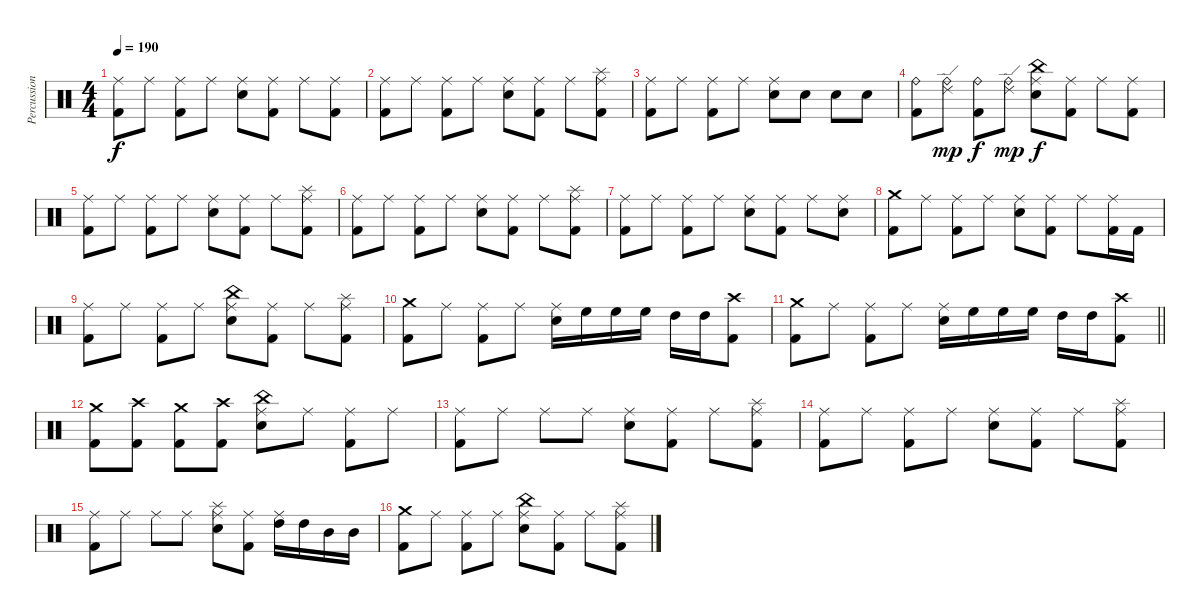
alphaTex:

\track ("Percussions" "Percussion") {instrument percussion}
\staff {score}
\articulation defaults
\ts (4 4)
\tempo 190
\clef neutral
\ks c
("Ride (middle)" "Kick (hit) 2").8{dy f} "Ride (middle)".8 ("Ride (middle)" "Kick (hit) 2").8 "Ride (middle)".8 ("Ride (middle)" "Electric Snare (hit)").8 ("Ride (middle)" "Kick (hit) 2").8 "Ride (middle)".8 ("Ride (middle)" "Kick (hit) 2").8 |
("Ride (middle)" "Kick (hit) 2").8 "Ride (middle)".8 ("Ride (middle)" "Kick (hit) 2").8 "Ride (middle)".8 ("Ride (middle)" "Electric Snare (hit)").8 ("Ride (middle)" "Kick (hit) 2").8 "Ride (middle)".8 ("Ride (middle)" "Splash (hit)" "Kick (hit) 2").8 |
("Ride (middle)" "Kick (hit) 2").8 "Ride (middle)".8 ("Ride (middle)" "Kick (hit) 2").8 "Ride (middle)".8 ("Ride (middle)" "Electric Snare (hit)").8 "Electric Snare (hit)".8 "Electric Snare (hit)".8 "Electric Snare (hit)".8 |
("Ride (bell)" "Kick (hit) 2").8 ("Ride (edge) 2" "Ride (bell)").8{dy mp} ("Ride (bell)" "Kick (hit) 2").8{dy f} ("Ride (edge) 2" "Ride (bell)").8{dy mp} ("Ride (middle)" "China (hit)" "Electric Snare (hit)").8{dy f} ("Ride (middle)" "Kick (hit) 2").8 "Ride (middle)".8 ("Ride (middle)" "Kick (hit) 2").8 |
("Ride (middle)" "Kick (hit) 2").8 "Ride (middle)".8 ("Ride (middle)" "Kick (hit) 2").8 "Ride (middle)".8 ("Ride (middle)" "Electric Snare (hit)").8 ("Ride (middle)" "Kick (hit) 2").8 "Ride (middle)".8 ("Ride (middle)" "Splash (hit)" "Kick (hit) 2").8 |
("Ride (middle)" "Kick (hit) 2").8 "Ride (middle)".8 ("Ride (middle)" "Kick (hit) 2").8 "Ride (middle)".8 ("Ride (middle)" "Electric Snare (hit)").8 ("Ride (middle)" "Kick (hit) 2").8 "Ride (middle)".8 ("Ride (middle)" "Splash (hit)" "Kick (hit) 2").8 |
("Ride (middle)" "Kick (hit) 2").8 "Ride (middle)".8 ("Ride (middle)" "Kick (hit) 2").8 "Ride (middle)".8 ("Ride (middle)" "Electric Snare (hit)").8 ("Ride (middle)" "Kick (hit) 2").8 "Ride (middle)".8 ("Ride (middle)" "Electric Snare (hit)").8 |
("Crash medium (hit)" "Kick (hit) 2").8 "Ride (middle)".8 ("Ride (middle)" "Kick (hit) 2").8 "Ride (middle)".8 ("Ride (middle)" "Electric Snare (hit)").8 ("Ride (middle)" "Kick (hit) 2").8 "Ride (middle)".8 ("Ride (middle)" "Kick (hit) 2").16 "Kick (hit) 2".16 |
("Ride (middle)" "Kick (hit) 2").8 "Ride (middle)".8 ("Ride (middle)" "Kick (hit) 2").8 "Ride (middle)".8 ("Ride (middle)" "China (hit)" "Electric Snare (hit)").8 ("Ride (middle)" "Kick (hit) 2").8 "Ride (middle)".8 ("Ride (middle)" "Splash (hit)" "Kick (hit) 2").8 |
("Crash medium (hit)" "Kick (hit) 2").8 "Ride (middle)".8 ("Ride (middle)" "Kick (hit) 2").8 "Ride (middle)".8 ("Ride (middle)" "Electric Snare (hit)").16 "High Floor Tom (hit)".16 "High Floor Tom (hit)".16 "High Floor Tom (hit)".16 "High Tom (hit)".16 "High Tom (hit)".16 ("Crash high (hit)" "Kick (hit) 2").8 |
\barLineRight lightlight
("Crash medium (hit)" "Kick (hit) 2").8 "Ride (middle)".8 ("Ride (middle)" "Kick (hit) 2").8 "Ride (middle)".8 ("Ride (middle)" "Electric Snare (hit)").16 "High Floor Tom (hit)".16 "High Floor Tom (hit)".16 "High Floor Tom (hit)".16 "High Tom (hit)".16 "High Tom (hit)".16 ("Crash high (hit)" "Kick (hit) 2").8 |
\section ("" "")
("Crash medium (hit)" "Kick (hit) 2").8 ("Crash high (hit)" "Kick (hit) 2").8 ("Crash medium (hit)" "Kick (hit) 2").8 ("Crash high (hit)" "Kick (hit) 2").8 ("Ride (middle)" "China (hit)" "Electric Snare (hit)").8 "Ride (middle)".8 ("Ride (middle)" "Kick (hit) 2").8 "Ride (middle)".8 |
("Ride (middle)" "Kick (hit) 2").8 "Ride (middle)".8 "Ride (middle)".8 "Ride (middle)".8 ("Ride (middle)" "Electric Snare (hit)").8 ("Ride (middle)" "Kick (hit) 2").8 "Ride (middle)".8 ("Ride (middle)" "Splash (hit)" "Kick (hit) 2").8 |
("Ride (middle)" "Kick (hit) 2").8 "Ride (middle)".8 ("Ride (middle)" "Kick (hit) 2").8 "Ride (middle)".8 ("Ride (middle)" "Electric Snare (hit)").8 ("Ride (middle)" "Kick (hit) 2").8 "Ride (middle)".8 ("Ride (middle)" "Splash (hit)" "Kick (hit) 2").8 |
("Ride (middle)" "Kick (hit) 2").8 "Ride (middle)".8 "Ride (middle)".8 "Ride (middle)".8 ("Ride (middle)" "Splash (hit)" "Electric Snare (hit)").8 ("Ride (middle)" "Kick (hit) 2").8 ("Ride (middle)" "High Tom (hit)").16 "High Tom (hit)".16 "Mid Tom (hit)".16 "Mid Tom (hit)".16 |
("Crash medium (hit)" "Kick (hit) 2").8 "Ride (middle)".8 ("Ride (middle)" "Kick (hit) 2").8 "Ride (middle)".8 ("Ride (middle)" "China (hit)" "Electric Snare (hit)").8 ("Ride (middle)" "Kick (hit) 2").8 "Ride (middle)".8 ("Ride (middle)" "Splash (hit)" "Kick (hit) 2").8
